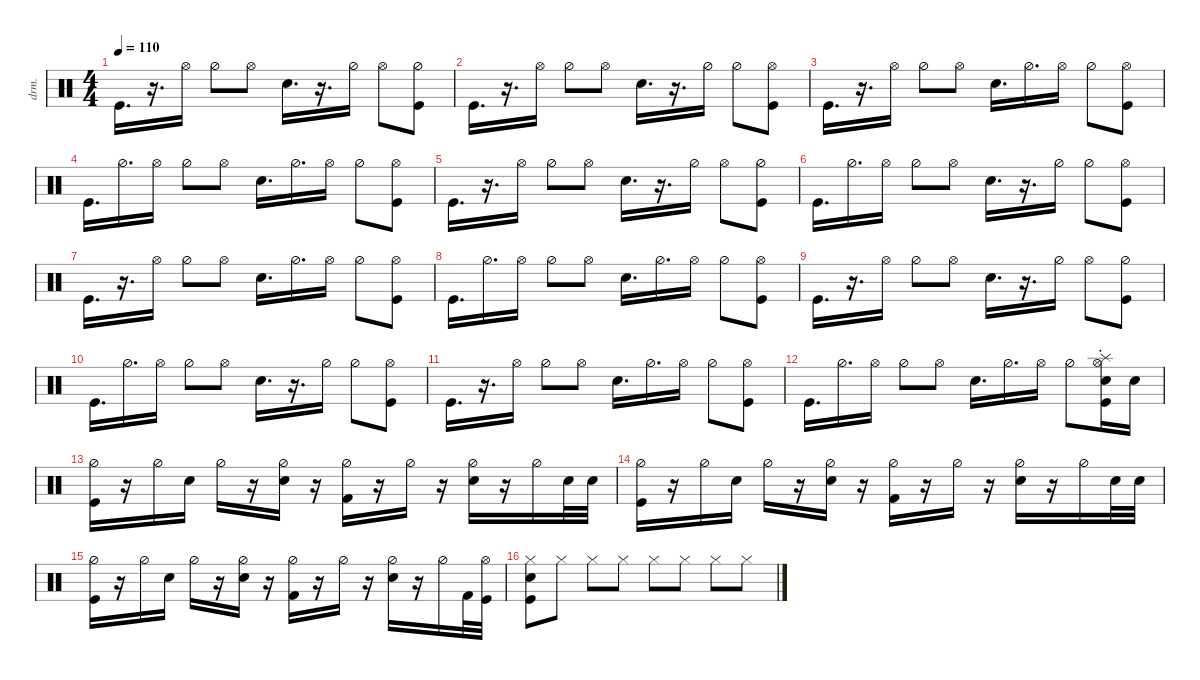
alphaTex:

\defaultSystemsLayout 4
\hideDynamics
\bracketExtendMode nobrackets
\otherSystemsTrackNameOrientation horizontal
\track ("Drumkit" "drm.") {instrument percussion}
\staff {score}
\articulation defaults
\ts (4 4)
\tempo 110
\clef neutral
\ks c "Kick (hit)".16{d dy mf beam Down}
r.16{d beam Down} "Hi-Hat (open)".16{beam Down} "Hi-Hat (half)".8{beam Down} "Hi-Hat (open)".8{beam Down} "Snare (hit) 2".16{d beam Down} r.16{d beam Down} "Hi-Hat (half)".16{beam Down} "Hi-Hat (open)".8{beam Down} ("Hi-Hat (half)" "Kick (hit)").8{beam Down} |
"Kick (hit)".16{d beam Down} r.16{d beam Down} "Hi-Hat (open)".16{beam Down} "Hi-Hat (half)".8{beam Down} "Hi-Hat (open)".8{beam Down} "Snare (hit) 2".16{d beam Down} r.16{d beam Down} "Hi-Hat (half)".16{beam Down} "Hi-Hat (half)".8{beam Down} ("Hi-Hat (open)" "Kick (hit)").8{beam Down} |
"Kick (hit)".16{d beam Down} r.16{d beam Down} "Hi-Hat (open)".16{beam Down} "Hi-Hat (half)".8{beam Down} "Hi-Hat (open)".8{beam Down} "Snare (hit) 2".16{d beam Down} "Hi-Hat (half)".16{d beam Down} "Hi-Hat (open)".16{beam Down} "Hi-Hat (half)".8{beam Down} ("Hi-Hat (open)" "Kick (hit)").8{beam Down} |
"Kick (hit)".16{d beam Down} "Hi-Hat (half)".16{d beam Down} "Hi-Hat (open)".16{beam Down} "Hi-Hat (half)".8{beam Down} "Hi-Hat (open)".8{beam Down} "Snare (hit) 2".16{d beam Down} "Hi-Hat (half)".16{d beam Down} "Hi-Hat (open)".16{beam Down} "Hi-Hat (half)".8{beam Down} ("Hi-Hat (open)" "Kick (hit)").8{beam Down} |
"Kick (hit)".16{d beam Down} r.16{d beam Down} "Hi-Hat (open)".16{beam Down} "Hi-Hat (half)".8{beam Down} "Hi-Hat (open)".8{beam Down} "Snare (hit) 2".16{d beam Down} r.16{d beam Down} "Hi-Hat (half)".16{beam Down} "Hi-Hat (open)".8{beam Down} ("Hi-Hat (half)" "Kick (hit)").8{beam Down} |
"Kick (hit)".16{d beam Down} "Hi-Hat (half)".16{d beam Down} "Hi-Hat (open)".16{beam Down} "Hi-Hat (half)".8{beam Down} "Hi-Hat (open)".8{beam Down} "Snare (hit) 2".16{d beam Down} r.16{d beam Down} "Hi-Hat (half)".16{beam Down} "Hi-Hat (half)".8{beam Down} ("Hi-Hat (open)" "Kick (hit)").8{beam Down} |
"Kick (hit)".16{d beam Down} r.16{d beam Down} "Hi-Hat (open)".16{beam Down} "Hi-Hat (half)".8{beam Down} "Hi-Hat (open)".8{beam Down} "Snare (hit) 2".16{d beam Down} "Hi-Hat (half)".16{d beam Down} "Hi-Hat (open)".16{beam Down} "Hi-Hat (half)".8{beam Down} ("Hi-Hat (open)" "Kick (hit)").8{beam Down} |
"Kick (hit)".16{d beam Down} "Hi-Hat (half)".16{d beam Down} "Hi-Hat (open)".16{beam Down} "Hi-Hat (half)".8{beam Down} "Hi-Hat (open)".8{beam Down} "Snare (hit) 2".16{d beam Down} "Hi-Hat (half)".16{d beam Down} "Hi-Hat (open)".16{beam Down} "Hi-Hat (half)".8{beam Down} ("Hi-Hat (open)" "Kick (hit)").8{beam Down} |
"Kick (hit)".16{d beam Down} r.16{d beam Down} "Hi-Hat (open)".16{beam Down} "Hi-Hat (half)".8{beam Down} "Hi-Hat (open)".8{beam Down} "Snare (hit) 2".16{d beam Down} r.16{d beam Down} "Hi-Hat (half)".16{beam Down} "Hi-Hat (open)".8{beam Down} ("Hi-Hat (half)" "Kick (hit)").8{beam Down} |
"Kick (hit)".16{d beam Down} "Hi-Hat (half)".16{d beam Down} "Hi-Hat (open)".16{beam Down} "Hi-Hat (half)".8{beam Down} "Hi-Hat (open)".8{beam Down} "Snare (hit) 2".16{d beam Down} r.16{d beam Down} "Hi-Hat (half)".16{beam Down} "Hi-Hat (half)".8{beam Down} ("Hi-Hat (open)" "Kick (hit)").8{beam Down} |
"Kick (hit)".16{d beam Down} r.16{d beam Down} "Hi-Hat (open)".16{beam Down} "Hi-Hat (half)".8{beam Down} "Hi-Hat (open)".8{beam Down} "Snare (hit) 2".16{d beam Down} "Hi-Hat (half)".16{d beam Down} "Hi-Hat (open)".16{beam Down} "Hi-Hat (half)".8{beam Down} ("Hi-Hat (open)" "Kick (hit)").8{beam Down} |
"Kick (hit)".16{d beam Down} "Hi-Hat (half)".16{d beam Down} "Hi-Hat (open)".16{beam Down} "Hi-Hat (half)".8{beam Down} "Hi-Hat (open)".8{beam Down} "Snare (hit) 2".16{d beam Down} "Hi-Hat (half)".16{d beam Down} "Hi-Hat (open)".16{beam Down} "Hi-Hat (half)".8{beam Down} ("Hi-Hat (open)" "Kick (hit)" "Splash (choke)" "Snare (hit) 2").16{beam Down} "Snare (hit) 2".16{beam Down} |
("Hi-Hat (half)" "Kick (hit)").16{beam Down} r.16{beam Down} "Hi-Hat (half)".16{beam Down} "Snare (hit) 2".16{beam Down} "Hi-Hat (half)".16{beam Down} r.16{beam Down} ("Hi-Hat (half)" "Snare (hit) 2").16{beam Down} r.16{beam Down} ("Hi-Hat (half)" "Kick (hit) 2").16{beam Down} r.16{beam Down} "Hi-Hat (half)".16{beam Down} r.16{beam Down} ("Hi-Hat (half)" "Snare (hit) 2").16{beam Down} r.16{beam Down} "Hi-Hat (half)".16{beam Down} "Snare (hit) 2".32{beam Down} "Snare (hit) 2".32{beam Down} |
("Hi-Hat (half)" "Kick (hit)").16{beam Down} r.16{beam Down} "Hi-Hat (half)".16{beam Down} "Snare (hit) 2".16{beam Down} "Hi-Hat (half)".16{beam Down} r.16{beam Down} ("Hi-Hat (half)" "Snare (hit) 2").16{beam Down} r.16{beam Down} ("Hi-Hat (half)" "Kick (hit) 2").16{beam Down} r.16{beam Down} "Hi-Hat (half)".16{beam Down} r.16{beam Down} ("Hi-Hat (half)" "Snare (hit) 2").16{beam Down} r.16{beam Down} "Hi-Hat (half)".16{beam Down} "Snare (hit) 2".32{beam Down} "Snare (hit) 2".32{beam Down} |
("Hi-Hat (half)" "Kick (hit)").16{beam Down} r.16{beam Down} "Hi-Hat (half)".16{beam Down} "Snare (hit) 2".16{beam Down} "Hi-Hat (half)".16{beam Down} r.16{beam Down} ("Hi-Hat (half)" "Snare (hit) 2").16{beam Down} r.16{beam Down} ("Hi-Hat (half)" "Kick (hit) 2").16{beam Down} r.16{beam Down} "Hi-Hat (half)".16{beam Down} r.16{beam Down} ("Hi-Hat (half)" "Snare (hit) 2").16{beam Down} r.16{beam Down} "Hi-Hat (half)".16{beam Down} "Kick (hit) 2".32{beam Down} ("Hi-Hat (open)" "Kick (hit)").32{beam Down} |
("Hi-Hat (closed)" "Snare (hit) 2" "Kick (hit)").8{beam Down} "Hi-Hat (closed)".8{beam Down} "Hi-Hat (closed)".8{beam Down} "Hi-Hat (closed)".8{beam Down} "Hi-Hat (closed)".8{beam Down} "Hi-Hat (closed)".8{beam Down} "Hi-Hat (closed)".8{beam Down} "Hi-Hat (closed)".8{beam Down}
